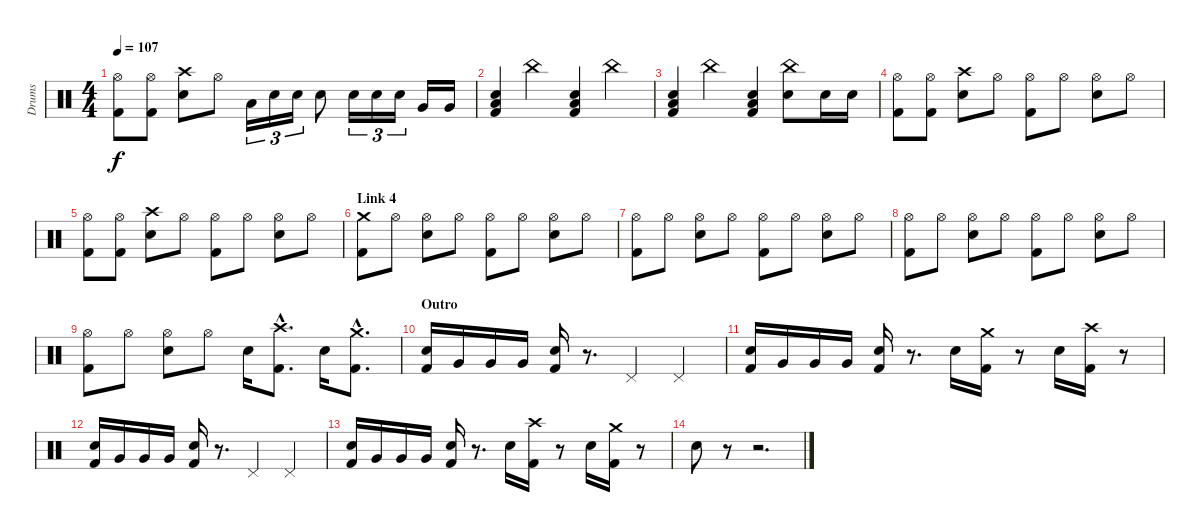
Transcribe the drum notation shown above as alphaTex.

\track ("Drums" "Drums") {instrument percussion}
\staff {score}
\articulation defaults
\ts (4 4)
\tempo 107
\clef neutral
\ks c
("Hi-Hat (open)" "Kick (hit) 2").8{dy f} ("Hi-Hat (open)" "Kick (hit) 2").8 ("Crash high (hit)" "Electric Snare (hit)").8 "Hi-Hat (open)".8 "Low Tom (hit)".16{tu (3 2)} "Electric Snare (hit)".16{tu (3 2)} "Electric Snare (hit)".16{tu (3 2)} "Electric Snare (hit)".8 "Electric Snare (hit)".16{tu (3 2)} "Electric Snare (hit)".16{tu (3 2)} "Electric Snare (hit)".16{tu (3 2)} "Very Low Tom (hit)".16 "Very Low Tom (hit)".16 |
("Electric Snare (hit)" "Low Floor Tom (hit)" "Kick (hit) 2").4 "China (hit)".4 ("Electric Snare (hit)" "Low Floor Tom (hit)" "Kick (hit) 2").4 "China (hit)".4 |
("Electric Snare (hit)" "Low Floor Tom (hit)" "Kick (hit) 2").4 "China (hit)".4 ("Electric Snare (hit)" "Low Floor Tom (hit)" "Kick (hit) 2").4 ("China (hit)" "Electric Snare (hit)").8 "Electric Snare (hit)".16 "Electric Snare (hit)".16 |
("Hi-Hat (open)" "Kick (hit) 2").8 ("Hi-Hat (open)" "Kick (hit) 2").8 ("Crash high (hit)" "Electric Snare (hit)").8 "Hi-Hat (open)".8 ("Hi-Hat (open)" "Kick (hit) 2").8 "Hi-Hat (open)".8 ("Hi-Hat (open)" "Electric Snare (hit)").8 "Hi-Hat (open)".8 |
("Hi-Hat (open)" "Kick (hit) 2").8 ("Hi-Hat (open)" "Kick (hit) 2").8 ("Crash high (hit)" "Electric Snare (hit)").8 "Hi-Hat (open)".8 ("Hi-Hat (open)" "Kick (hit) 2").8 "Hi-Hat (open)".8 ("Hi-Hat (open)" "Electric Snare (hit)").8 "Hi-Hat (open)".8 |
\section ("" "Link 4")
("Crash medium (hit)" "Kick (hit) 2").8 "Hi-Hat (open)".8 ("Hi-Hat (open)" "Electric Snare (hit)").8 "Hi-Hat (open)".8 ("Hi-Hat (open)" "Kick (hit) 2").8 "Hi-Hat (open)".8 ("Hi-Hat (open)" "Electric Snare (hit)").8 "Hi-Hat (open)".8 |
("Hi-Hat (open)" "Kick (hit) 2").8 "Hi-Hat (open)".8 ("Hi-Hat (open)" "Electric Snare (hit)").8 "Hi-Hat (open)".8 ("Hi-Hat (open)" "Kick (hit) 2").8 "Hi-Hat (open)".8 ("Hi-Hat (open)" "Electric Snare (hit)").8 "Hi-Hat (open)".8 |
("Hi-Hat (open)" "Kick (hit) 2").8 "Hi-Hat (open)".8 ("Hi-Hat (open)" "Electric Snare (hit)").8 "Hi-Hat (open)".8 ("Hi-Hat (open)" "Kick (hit) 2").8 "Hi-Hat (open)".8 ("Hi-Hat (open)" "Electric Snare (hit)").8 "Hi-Hat (open)".8 |
("Hi-Hat (open)" "Kick (hit) 2").8 "Hi-Hat (open)".8 ("Hi-Hat (open)" "Electric Snare (hit)").8 "Hi-Hat (open)".8 "Electric Snare (hit)".16 ("Crash high (hit)"{hac} "Kick (hit) 2"{hac}).8{d} "Electric Snare (hit)".16 ("Crash medium (hit)"{hac} "Kick (hit) 2"{hac}).8{d} |
\section ("" "Outro")
("Electric Snare (hit)" "Kick (hit) 2").16 "Very Low Tom (hit)".16 "Very Low Tom (hit)".16 "Very Low Tom (hit)".16 ("Electric Snare (hit)" "Kick (hit) 2").16 r.8{d} "Pedal Hi-Hat (hit)".4 "Pedal Hi-Hat (hit)".4 |
("Electric Snare (hit)" "Kick (hit) 2").16 "Very Low Tom (hit)".16 "Very Low Tom (hit)".16 "Very Low Tom (hit)".16 ("Electric Snare (hit)" "Kick (hit) 2").16 r.8{d} "Electric Snare (hit)".16 ("Crash medium (hit)" "Kick (hit) 2").16 r.8 "Electric Snare (hit)".16 ("Crash high (hit)" "Kick (hit) 2").16 r.8 |
("Electric Snare (hit)" "Kick (hit) 2").16 "Very Low Tom (hit)".16 "Very Low Tom (hit)".16 "Very Low Tom (hit)".16 ("Electric Snare (hit)" "Kick (hit) 2").16 r.8{d} "Pedal Hi-Hat (hit)".4 "Pedal Hi-Hat (hit)".4 |
("Electric Snare (hit)" "Kick (hit) 2").16 "Very Low Tom (hit)".16 "Very Low Tom (hit)".16 "Very Low Tom (hit)".16 ("Electric Snare (hit)" "Kick (hit) 2").16 r.8{d} "Electric Snare (hit)".16 ("Crash high (hit)" "Kick (hit) 2").16 r.8 "Electric Snare (hit)".16 ("Crash medium (hit)" "Kick (hit) 2").16 r.8 |
"Electric Snare (hit)".8 r.8 r.2{d}
